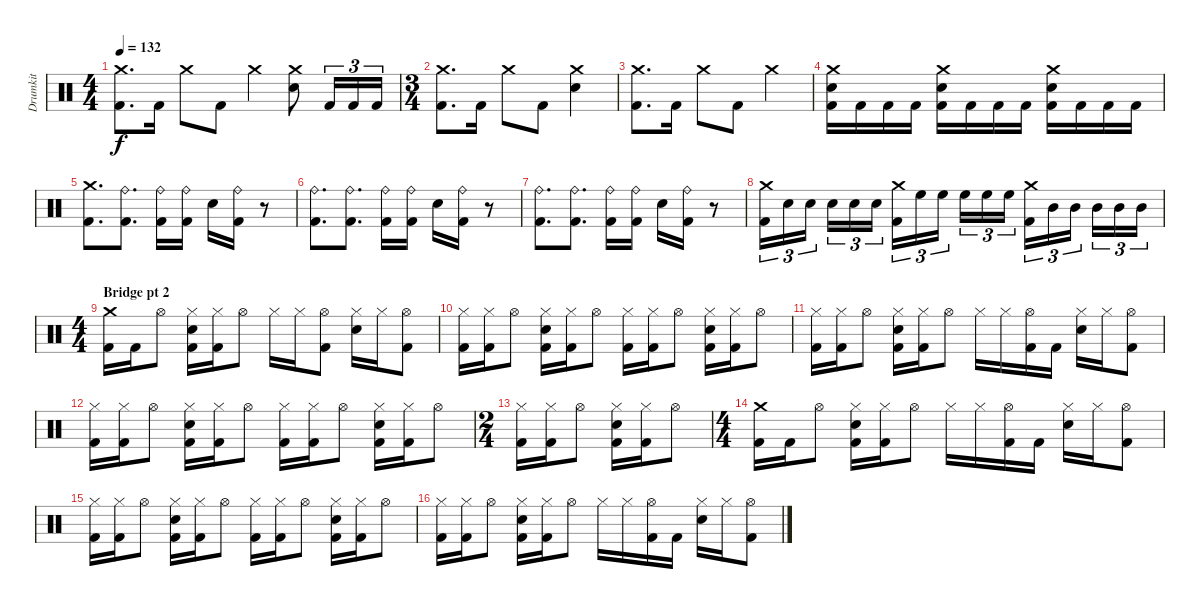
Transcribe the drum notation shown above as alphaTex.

\track ("Drumkit" "Drumkit") {instrument percussion}
\staff {score}
\articulation defaults
\ts (4 4)
\tempo 132
\clef neutral
\ks c
("Crash medium (hit)" "Kick (hit) 2").8{d dy f} "Kick (hit) 2".16 "Crash medium (hit)".8 "Kick (hit) 2".8 "Crash medium (hit)".4 ("Crash medium (hit)" "Snare (hit) 2").8 "Kick (hit) 2".16{tu (3 2)} "Kick (hit) 2".16{tu (3 2)} "Kick (hit) 2".16{tu (3 2)} |
\ts (3 4)
("Crash medium (hit)" "Kick (hit) 2").8{d} "Kick (hit) 2".16 "Crash medium (hit)".8 "Kick (hit) 2".8 ("Crash medium (hit)" "Snare (hit) 2").4 |
("Crash medium (hit)" "Kick (hit) 2").8{d} "Kick (hit) 2".16 "Crash medium (hit)".8 "Kick (hit) 2".8 "Crash medium (hit)".4 |
("Crash medium (hit)" "Snare (hit) 2" "Kick (hit) 2").16 "Kick (hit) 2".16 "Kick (hit) 2".16 "Kick (hit) 2".16 ("Crash medium (hit)" "Snare (hit) 2" "Kick (hit) 2").16 "Kick (hit) 2".16 "Kick (hit) 2".16 "Kick (hit) 2".16 ("Crash medium (hit)" "Snare (hit) 2" "Kick (hit) 2").16 "Kick (hit) 2".16 "Kick (hit) 2".16 "Kick (hit) 2".16 |
("Crash medium (hit)" "Kick (hit) 2").8{d} ("Ride (bell)" "Kick (hit) 2").8{d} ("Ride (bell)" "Kick (hit) 2").16 ("Ride (bell)" "Kick (hit) 2").16 "Snare (hit) 2".16 ("Ride (bell)" "Kick (hit) 2").16 r.8 |
("Ride (bell)" "Kick (hit) 2").8{d} ("Ride (bell)" "Kick (hit) 2").8{d} ("Ride (bell)" "Kick (hit) 2").16 ("Ride (bell)" "Kick (hit) 2").16 "Snare (hit) 2".16 ("Ride (bell)" "Kick (hit) 2").16 r.8 |
("Ride (bell)" "Kick (hit) 2").8{d} ("Ride (bell)" "Kick (hit) 2").8{d} ("Ride (bell)" "Kick (hit) 2").16 ("Ride (bell)" "Kick (hit) 2").16 "Snare (hit) 2".16 ("Ride (bell)" "Kick (hit) 2").16 r.8 |
("Crash medium (hit)" "Kick (hit) 2").16{tu (3 2)} "Snare (hit) 2".16{tu (3 2)} "Snare (hit) 2".16{tu (3 2)} "Snare (hit) 2".16{tu (3 2)} "Snare (hit) 2".16{tu (3 2)} "Snare (hit) 2".16{tu (3 2)} ("Crash medium (hit)" "Kick (hit) 2").16{tu (3 2)} "High Floor Tom (hit)".16{tu (3 2)} "High Floor Tom (hit)".16{tu (3 2)} "High Floor Tom (hit)".16{tu (3 2)} "High Floor Tom (hit)".16{tu (3 2)} "High Floor Tom (hit)".16{tu (3 2)} ("Crash medium (hit)" "Kick (hit) 2").16{tu (3 2)} "Mid Tom (hit)".16{tu (3 2)} "Mid Tom (hit)".16{tu (3 2)} "Mid Tom (hit)".16{tu (3 2)} "Mid Tom (hit)".16{tu (3 2)} "Mid Tom (hit)".16{tu (3 2)} |
\ts (4 4)
\section ("" "Bridge pt 2")
("Crash medium (hit)" "Kick (hit) 2").16 "Kick (hit) 2".16 "Hi-Hat (open)".8 ("Hi-Hat (closed)" "Snare (hit) 2" "Kick (hit) 2").16 ("Hi-Hat (closed)" "Kick (hit) 2").16 "Hi-Hat (open)".8 "Hi-Hat (closed)".16 "Hi-Hat (closed)".16 ("Hi-Hat (open)" "Kick (hit) 2").8 ("Hi-Hat (closed)" "Snare (hit) 2").16 "Hi-Hat (closed)".16 ("Hi-Hat (open)" "Kick (hit) 2").8 |
("Hi-Hat (closed)" "Kick (hit) 2").16 ("Hi-Hat (closed)" "Kick (hit) 2").16 "Hi-Hat (open)".8 ("Hi-Hat (closed)" "Snare (hit) 2" "Kick (hit) 2").16 ("Hi-Hat (closed)" "Kick (hit) 2").16 "Hi-Hat (open)".8 ("Hi-Hat (closed)" "Kick (hit) 2").16 ("Hi-Hat (closed)" "Kick (hit) 2").16 "Hi-Hat (open)".8 ("Hi-Hat (closed)" "Snare (hit) 2" "Kick (hit) 2").16 ("Hi-Hat (closed)" "Kick (hit) 2").16 "Hi-Hat (open)".8 |
("Hi-Hat (closed)" "Kick (hit) 2").16 ("Hi-Hat (closed)" "Kick (hit) 2").16 "Hi-Hat (open)".8 ("Hi-Hat (closed)" "Snare (hit) 2" "Kick (hit) 2").16 ("Hi-Hat (closed)" "Kick (hit) 2").16 "Hi-Hat (open)".8 "Hi-Hat (closed)".16 "Hi-Hat (closed)".16 ("Hi-Hat (open)" "Kick (hit) 2").16 "Kick (hit) 2".16 ("Hi-Hat (closed)" "Snare (hit) 2").16 "Hi-Hat (closed)".16 ("Hi-Hat (open)" "Kick (hit) 2").8 |
("Hi-Hat (closed)" "Kick (hit) 2").16 ("Hi-Hat (closed)" "Kick (hit) 2").16 "Hi-Hat (open)".8 ("Hi-Hat (closed)" "Snare (hit) 2" "Kick (hit) 2").16 ("Hi-Hat (closed)" "Kick (hit) 2").16 "Hi-Hat (open)".8 ("Hi-Hat (closed)" "Kick (hit) 2").16 ("Hi-Hat (closed)" "Kick (hit) 2").16 "Hi-Hat (open)".8 ("Hi-Hat (closed)" "Snare (hit) 2" "Kick (hit) 2").16 ("Hi-Hat (closed)" "Kick (hit) 2").16 "Hi-Hat (open)".8 |
\ts (2 4)
("Hi-Hat (closed)" "Kick (hit) 2").16 ("Hi-Hat (closed)" "Kick (hit) 2").16 "Hi-Hat (open)".8 ("Hi-Hat (closed)" "Snare (hit) 2" "Kick (hit) 2").16 ("Hi-Hat (closed)" "Kick (hit) 2").16 "Hi-Hat (open)".8 |
\ts (4 4)
("Crash medium (hit)" "Kick (hit) 2").16 "Kick (hit) 2".16 "Hi-Hat (open)".8 ("Hi-Hat (closed)" "Snare (hit) 2" "Kick (hit) 2").16 ("Hi-Hat (closed)" "Kick (hit) 2").16 "Hi-Hat (open)".8 "Hi-Hat (closed)".16 "Hi-Hat (closed)".16 ("Hi-Hat (open)" "Kick (hit) 2").16 "Kick (hit) 2".16 ("Hi-Hat (closed)" "Snare (hit) 2").16 "Hi-Hat (closed)".16 ("Hi-Hat (open)" "Kick (hit) 2").8 |
("Hi-Hat (closed)" "Kick (hit) 2").16 ("Hi-Hat (closed)" "Kick (hit) 2").16 "Hi-Hat (open)".8 ("Hi-Hat (closed)" "Snare (hit) 2" "Kick (hit) 2").16 ("Hi-Hat (closed)" "Kick (hit) 2").16 "Hi-Hat (open)".8 ("Hi-Hat (closed)" "Kick (hit) 2").16 ("Hi-Hat (closed)" "Kick (hit) 2").16 "Hi-Hat (open)".8 ("Hi-Hat (closed)" "Snare (hit) 2" "Kick (hit) 2").16 ("Hi-Hat (closed)" "Kick (hit) 2").16 "Hi-Hat (open)".8 |
("Hi-Hat (closed)" "Kick (hit) 2").16 ("Hi-Hat (closed)" "Kick (hit) 2").16 "Hi-Hat (open)".8 ("Hi-Hat (closed)" "Snare (hit) 2" "Kick (hit) 2").16 ("Hi-Hat (closed)" "Kick (hit) 2").16 "Hi-Hat (open)".8 "Hi-Hat (closed)".16 "Hi-Hat (closed)".16 ("Hi-Hat (open)" "Kick (hit) 2").16 "Kick (hit) 2".16 ("Hi-Hat (closed)" "Snare (hit) 2").16 "Hi-Hat (closed)".16 ("Hi-Hat (open)" "Kick (hit) 2").8
